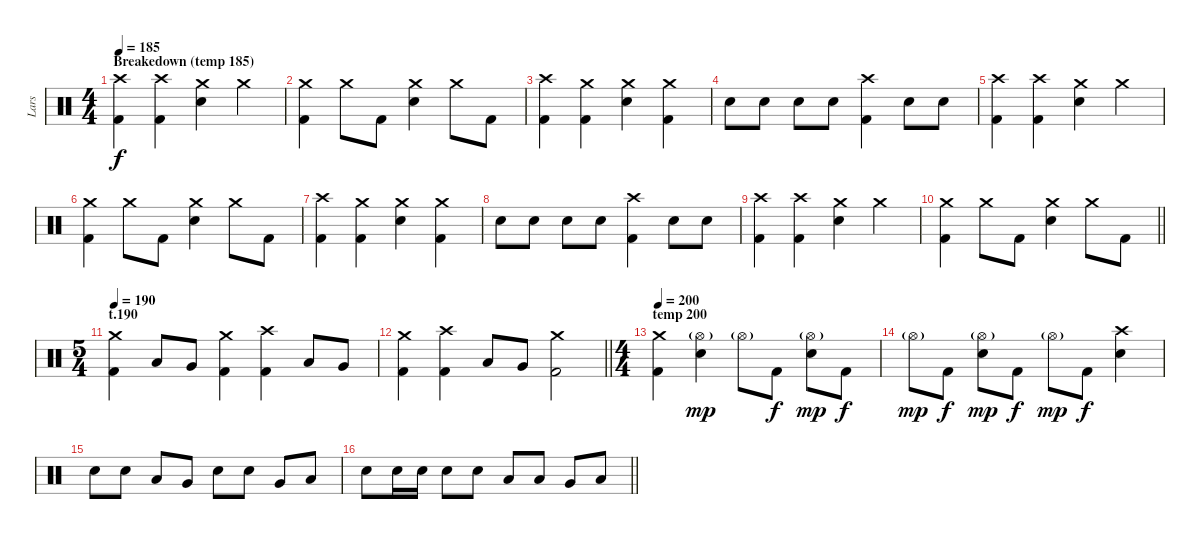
\track ("Lars" "Lars") {instrument percussion}
\staff {score}
\articulation defaults
\ts (4 4)
\section ("" "Breakedown (temp 185)")
\tempo 185
\clef neutral
\ks c
("Crash high (hit)" "Kick (hit) 2").4{dy f} ("Crash high (hit)" "Kick (hit) 2").4 ("Crash medium (hit)" "Electric Snare (hit)").4 "Crash medium (hit)".4 |
("Crash medium (hit)" "Kick (hit) 2").4 "Crash medium (hit)".8 "Kick (hit) 2".8 ("Crash medium (hit)" "Electric Snare (hit)").4 "Crash medium (hit)".8 "Kick (hit) 2".8 |
("Crash high (hit)" "Kick (hit) 2").4 ("Crash medium (hit)" "Kick (hit) 2").4 ("Crash medium (hit)" "Electric Snare (hit)").4 ("Crash medium (hit)" "Kick (hit) 2").4 |
"Electric Snare (hit)".8 "Electric Snare (hit)".8 "Electric Snare (hit)".8 "Electric Snare (hit)".8 ("Crash high (hit)" "Kick (hit) 2").4 "Electric Snare (hit)".8 "Electric Snare (hit)".8 |
("Crash high (hit)" "Kick (hit) 2").4 ("Crash high (hit)" "Kick (hit) 2").4 ("Crash medium (hit)" "Electric Snare (hit)").4 "Crash medium (hit)".4 |
("Crash medium (hit)" "Kick (hit) 2").4 "Crash medium (hit)".8 "Kick (hit) 2".8 ("Crash medium (hit)" "Electric Snare (hit)").4 "Crash medium (hit)".8 "Kick (hit) 2".8 |
("Crash high (hit)" "Kick (hit) 2").4 ("Crash medium (hit)" "Kick (hit) 2").4 ("Crash medium (hit)" "Electric Snare (hit)").4 ("Crash medium (hit)" "Kick (hit) 2").4 |
"Electric Snare (hit)".8 "Electric Snare (hit)".8 "Electric Snare (hit)".8 "Electric Snare (hit)".8 ("Crash high (hit)" "Kick (hit) 2").4 "Electric Snare (hit)".8 "Electric Snare (hit)".8 |
("Crash high (hit)" "Kick (hit) 2").4 ("Crash high (hit)" "Kick (hit) 2").4 ("Crash medium (hit)" "Electric Snare (hit)").4 "Crash medium (hit)".4 |
\barLineRight lightlight
("Crash medium (hit)" "Kick (hit) 2").4 "Crash medium (hit)".8 "Kick (hit) 2".8 ("Crash medium (hit)" "Electric Snare (hit)").4 "Crash medium (hit)".8 "Kick (hit) 2".8 |
\ts (5 4)
\section ("" "t.190")
\tempo 190
("Crash medium (hit)" "Kick (hit) 2").4 "Low Tom (hit)".8 "Very Low Tom (hit)".8 ("Crash medium (hit)" "Kick (hit) 2").4 ("Crash high (hit)" "Kick (hit) 2").4 "Low Tom (hit)".8 "Very Low Tom (hit)".8 |
\barLineRight lightlight
("Crash medium (hit)" "Kick (hit) 2").4 ("Crash high (hit)" "Kick (hit) 2").4 "Low Tom (hit)".8 "Very Low Tom (hit)".8 ("Crash medium (hit)" "Kick (hit) 2").2 |
\ts (4 4)
\section ("" "temp 200")
\tempo 200
("Crash medium (hit)" "Kick (hit) 2").4 ("Hi-Hat (open)"{g} "Electric Snare (hit)").4{dy mp} "Hi-Hat (open)"{g}.8 "Kick (hit) 2".8{dy f} ("Hi-Hat (open)"{g} "Electric Snare (hit)").8{dy mp} "Kick (hit) 2".8{dy f} |
"Hi-Hat (open)"{g}.8{dy mp} "Kick (hit) 2".8{dy f} ("Hi-Hat (open)"{g} "Electric Snare (hit)").8{dy mp} "Kick (hit) 2".8{dy f} "Hi-Hat (open)"{g}.8{dy mp} "Kick (hit) 2".8{dy f} ("Crash high (hit)" "Electric Snare (hit)").4 |
"Electric Snare (hit)".8 "Electric Snare (hit)".8 "Low Tom (hit)".8 "Very Low Tom (hit)".8 "Electric Snare (hit)".8 "Electric Snare (hit)".8 "Very Low Tom (hit)".8 "Low Floor Tom (hit)".8 |
\barLineRight lightlight "Electric Snare (hit)".8 "Electric Snare (hit)".16 "Electric Snare (hit)".16 "Electric Snare (hit)".8 "Electric Snare (hit)".8 "Low Tom (hit)".8 "Low Tom (hit)".8 "Very Low Tom (hit)".8 "Low Floor Tom (hit)".8
